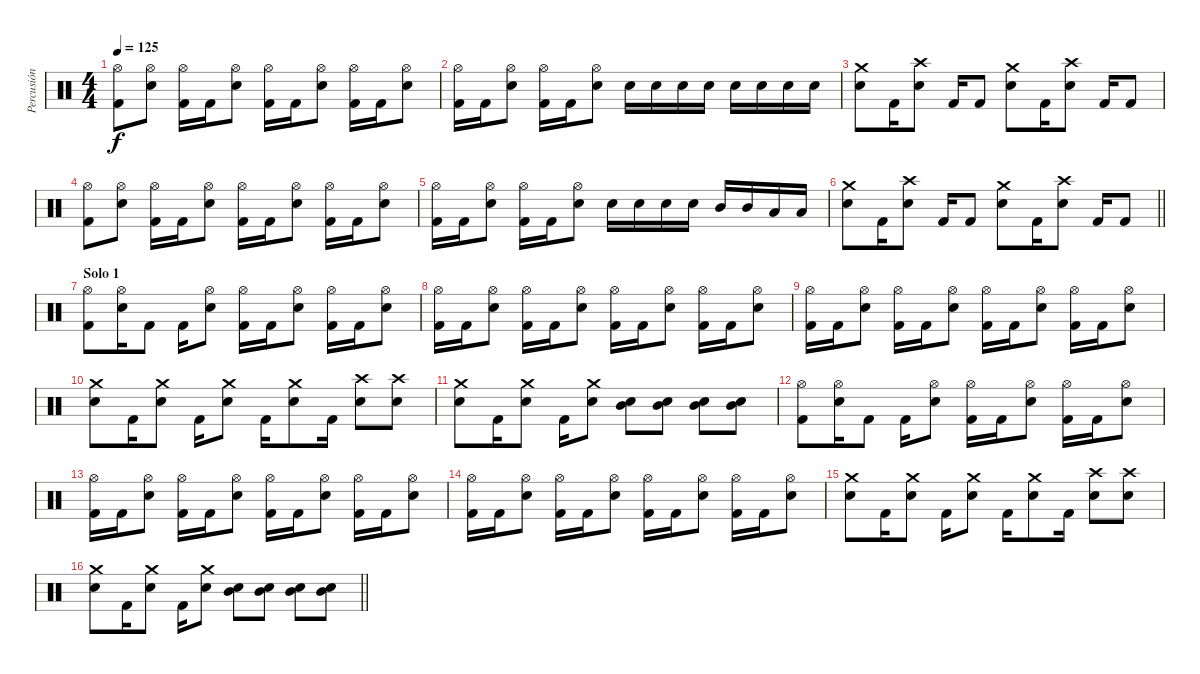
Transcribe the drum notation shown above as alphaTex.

\track ("Percusión" "Percusión") {instrument percussion}
\staff {score}
\articulation defaults
\ts (4 4)
\tempo 125
\clef neutral
\ks c
("Hi-Hat (open)" "Kick (hit) 2").8{dy f} ("Hi-Hat (open)" "Snare (hit) 2").8 ("Hi-Hat (open)" "Kick (hit) 2").16 "Kick (hit) 2".16 ("Hi-Hat (open)" "Snare (hit) 2").8 ("Hi-Hat (open)" "Kick (hit) 2").16 "Kick (hit) 2".16 ("Hi-Hat (open)" "Snare (hit) 2").8 ("Hi-Hat (open)" "Kick (hit) 2").16 "Kick (hit) 2".16 ("Hi-Hat (open)" "Snare (hit) 2").8 |
("Hi-Hat (open)" "Kick (hit) 2").16 "Kick (hit) 2".16 ("Hi-Hat (open)" "Snare (hit) 2").8 ("Hi-Hat (open)" "Kick (hit) 2").16 "Kick (hit) 2".16 ("Hi-Hat (open)" "Snare (hit) 2").8 "Snare (hit) 2".16 "Snare (hit) 2".16 "Snare (hit) 2".16 "Snare (hit) 2".16 "Snare (hit) 2".16 "Snare (hit) 2".16 "Snare (hit) 2".16 "Snare (hit) 2".16 |
("Crash medium (hit)" "Snare (hit) 2").8 "Kick (hit) 2".16 ("Crash high (hit)" "Snare (hit) 2").8 "Kick (hit) 2".16 "Kick (hit) 2".8 ("Crash medium (hit)" "Snare (hit) 2").8 "Kick (hit) 2".16 ("Crash high (hit)" "Snare (hit) 2").8 "Kick (hit) 2".16 "Kick (hit) 2".8 |
("Hi-Hat (open)" "Kick (hit) 2").8 ("Hi-Hat (open)" "Snare (hit) 2").8 ("Hi-Hat (open)" "Kick (hit) 2").16 "Kick (hit) 2".16 ("Hi-Hat (open)" "Snare (hit) 2").8 ("Hi-Hat (open)" "Kick (hit) 2").16 "Kick (hit) 2".16 ("Hi-Hat (open)" "Snare (hit) 2").8 ("Hi-Hat (open)" "Kick (hit) 2").16 "Kick (hit) 2".16 ("Hi-Hat (open)" "Snare (hit) 2").8 |
("Hi-Hat (open)" "Kick (hit) 2").16 "Kick (hit) 2".16 ("Hi-Hat (open)" "Snare (hit) 2").8 ("Hi-Hat (open)" "Kick (hit) 2").16 "Kick (hit) 2".16 ("Hi-Hat (open)" "Snare (hit) 2").8 "Snare (hit) 2".16 "Snare (hit) 2".16 "Snare (hit) 2".16 "Snare (hit) 2".16 "Mid Tom (hit)".16 "Mid Tom (hit)".16 "Low Tom (hit)".16 "Low Tom (hit)".16 |
\barLineRight lightlight
("Crash medium (hit)" "Snare (hit) 2").8 "Kick (hit) 2".16 ("Crash high (hit)" "Snare (hit) 2").8 "Kick (hit) 2".16 "Kick (hit) 2".8 ("Crash medium (hit)" "Snare (hit) 2").8 "Kick (hit) 2".16 ("Crash high (hit)" "Snare (hit) 2").8 "Kick (hit) 2".16 "Kick (hit) 2".8 |
\section ("" "Solo 1")
("Hi-Hat (open)" "Kick (hit) 2").8 ("Hi-Hat (open)" "Snare (hit) 2").16 "Kick (hit) 2".8 "Kick (hit) 2".16 ("Hi-Hat (open)" "Snare (hit) 2").8 ("Hi-Hat (open)" "Kick (hit) 2").16 "Kick (hit) 2".16 ("Hi-Hat (open)" "Snare (hit) 2").8 ("Hi-Hat (open)" "Kick (hit) 2").16 "Kick (hit) 2".16 ("Hi-Hat (open)" "Snare (hit) 2").8 |
("Hi-Hat (open)" "Kick (hit) 2").16 "Kick (hit) 2".16 ("Hi-Hat (open)" "Snare (hit) 2").8 ("Hi-Hat (open)" "Kick (hit) 2").16 "Kick (hit) 2".16 ("Hi-Hat (open)" "Snare (hit) 2").8 ("Hi-Hat (open)" "Kick (hit) 2").16 "Kick (hit) 2".16 ("Hi-Hat (open)" "Snare (hit) 2").8 ("Hi-Hat (open)" "Kick (hit) 2").16 "Kick (hit) 2".16 ("Hi-Hat (open)" "Snare (hit) 2").8 |
("Hi-Hat (open)" "Kick (hit) 2").16 "Kick (hit) 2".16 ("Hi-Hat (open)" "Snare (hit) 2").8 ("Hi-Hat (open)" "Kick (hit) 2").16 "Kick (hit) 2".16 ("Hi-Hat (open)" "Snare (hit) 2").8 ("Hi-Hat (open)" "Kick (hit) 2").16 "Kick (hit) 2".16 ("Hi-Hat (open)" "Snare (hit) 2").8 ("Hi-Hat (open)" "Kick (hit) 2").16 "Kick (hit) 2".16 ("Hi-Hat (open)" "Snare (hit) 2").8 |
("Crash medium (hit)" "Snare (hit) 2").8 "Kick (hit) 2".16 ("Crash medium (hit)" "Snare (hit) 2").8 "Kick (hit) 2".16 ("Crash medium (hit)" "Snare (hit) 2").8 "Kick (hit) 2".16 ("Crash medium (hit)" "Snare (hit) 2").8 "Kick (hit) 2".16 ("Crash high (hit)" "Snare (hit) 2").8 ("Crash high (hit)" "Snare (hit) 2").8 |
("Crash medium (hit)" "Snare (hit) 2").8 "Kick (hit) 2".16 ("Crash medium (hit)" "Snare (hit) 2").8 "Kick (hit) 2".16 ("Crash medium (hit)" "Snare (hit) 2").8 ("Mid Tom (hit)" "Snare (hit) 2").8 ("Mid Tom (hit)" "Snare (hit) 2").8 ("Mid Tom (hit)" "Snare (hit) 2").8 ("Mid Tom (hit)" "Snare (hit) 2").8 |
("Hi-Hat (open)" "Kick (hit) 2").8 ("Hi-Hat (open)" "Snare (hit) 2").16 "Kick (hit) 2".8 "Kick (hit) 2".16 ("Hi-Hat (open)" "Snare (hit) 2").8 ("Hi-Hat (open)" "Kick (hit) 2").16 "Kick (hit) 2".16 ("Hi-Hat (open)" "Snare (hit) 2").8 ("Hi-Hat (open)" "Kick (hit) 2").16 "Kick (hit) 2".16 ("Hi-Hat (open)" "Snare (hit) 2").8 |
("Hi-Hat (open)" "Kick (hit) 2").16 "Kick (hit) 2".16 ("Hi-Hat (open)" "Snare (hit) 2").8 ("Hi-Hat (open)" "Kick (hit) 2").16 "Kick (hit) 2".16 ("Hi-Hat (open)" "Snare (hit) 2").8 ("Hi-Hat (open)" "Kick (hit) 2").16 "Kick (hit) 2".16 ("Hi-Hat (open)" "Snare (hit) 2").8 ("Hi-Hat (open)" "Kick (hit) 2").16 "Kick (hit) 2".16 ("Hi-Hat (open)" "Snare (hit) 2").8 |
("Hi-Hat (open)" "Kick (hit) 2").16 "Kick (hit) 2".16 ("Hi-Hat (open)" "Snare (hit) 2").8 ("Hi-Hat (open)" "Kick (hit) 2").16 "Kick (hit) 2".16 ("Hi-Hat (open)" "Snare (hit) 2").8 ("Hi-Hat (open)" "Kick (hit) 2").16 "Kick (hit) 2".16 ("Hi-Hat (open)" "Snare (hit) 2").8 ("Hi-Hat (open)" "Kick (hit) 2").16 "Kick (hit) 2".16 ("Hi-Hat (open)" "Snare (hit) 2").8 |
("Crash medium (hit)" "Snare (hit) 2").8 "Kick (hit) 2".16 ("Crash medium (hit)" "Snare (hit) 2").8 "Kick (hit) 2".16 ("Crash medium (hit)" "Snare (hit) 2").8 "Kick (hit) 2".16 ("Crash medium (hit)" "Snare (hit) 2").8 "Kick (hit) 2".16 ("Crash high (hit)" "Snare (hit) 2").8 ("Crash high (hit)" "Snare (hit) 2").8 |
\barLineRight lightlight
("Crash medium (hit)" "Snare (hit) 2").8 "Kick (hit) 2".16 ("Crash medium (hit)" "Snare (hit) 2").8 "Kick (hit) 2".16 ("Crash medium (hit)" "Snare (hit) 2").8 ("Mid Tom (hit)" "Snare (hit) 2").8 ("Mid Tom (hit)" "Snare (hit) 2").8 ("Mid Tom (hit)" "Snare (hit) 2").8 ("Mid Tom (hit)" "Snare (hit) 2").8
